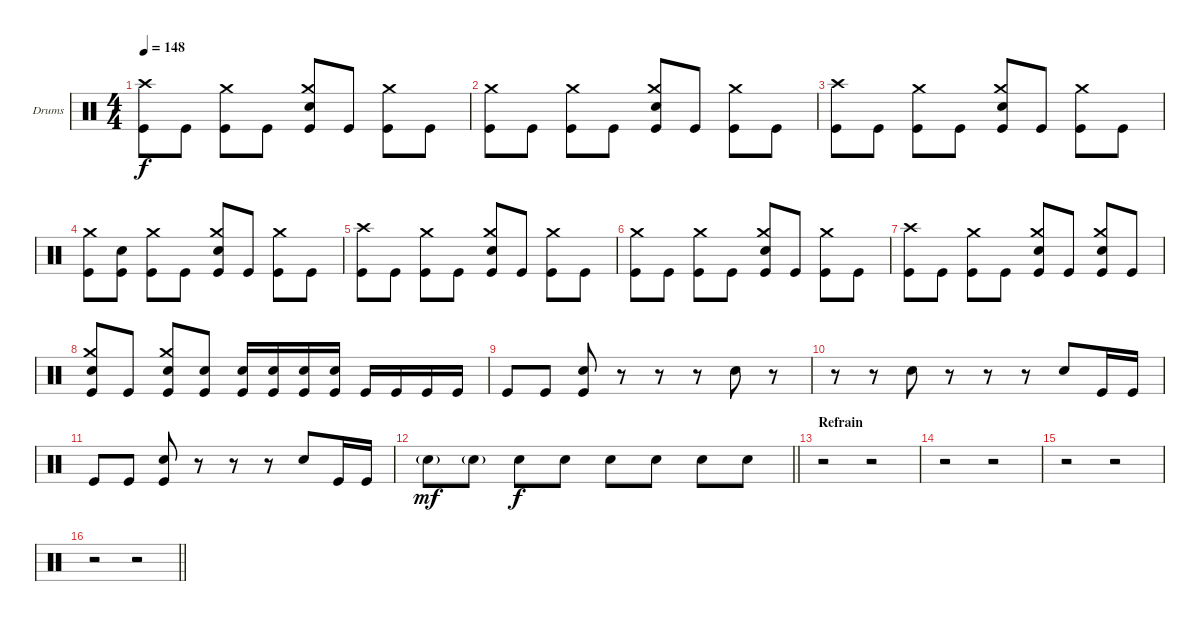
\bracketExtendMode groupsimilarinstruments
\firstSystemTrackNameOrientation horizontal
\otherSystemsTrackNameOrientation horizontal
\track ("Drumkit" "Drums") {instrument percussion}
\staff {score}
\articulation defaults
\ts (4 4)
\tempo 148
\clef neutral
\ks c
("Crash high (hit)" "Kick (hit)").8{dy f} "Kick (hit)".8 ("Crash medium (hit)" "Kick (hit)").8 "Kick (hit)".8 ("Crash medium (hit)" "Snare (hit) 2" "Kick (hit)").8 "Kick (hit)".8 ("Crash medium (hit)" "Kick (hit)").8 "Kick (hit)".8 |
("Crash medium (hit)" "Kick (hit)").8 "Kick (hit)".8 ("Crash medium (hit)" "Kick (hit)").8 "Kick (hit)".8 ("Crash medium (hit)" "Snare (hit) 2" "Kick (hit)").8 "Kick (hit)".8 ("Crash medium (hit)" "Kick (hit)").8 "Kick (hit)".8 |
("Crash high (hit)" "Kick (hit)").8 "Kick (hit)".8 ("Crash medium (hit)" "Kick (hit)").8 "Kick (hit)".8 ("Crash medium (hit)" "Snare (hit) 2" "Kick (hit)").8 "Kick (hit)".8 ("Crash medium (hit)" "Kick (hit)").8 "Kick (hit)".8 |
("Crash medium (hit)" "Kick (hit)").8 ("Snare (hit) 2" "Kick (hit)").8 ("Crash medium (hit)" "Kick (hit)").8 "Kick (hit)".8 ("Crash medium (hit)" "Snare (hit) 2" "Kick (hit)").8 "Kick (hit)".8 ("Crash medium (hit)" "Kick (hit)").8 "Kick (hit)".8 |
("Crash high (hit)" "Kick (hit)").8 "Kick (hit)".8 ("Crash medium (hit)" "Kick (hit)").8 "Kick (hit)".8 ("Crash medium (hit)" "Snare (hit) 2" "Kick (hit)").8 "Kick (hit)".8 ("Crash medium (hit)" "Kick (hit)").8 "Kick (hit)".8 |
("Crash medium (hit)" "Kick (hit)").8 "Kick (hit)".8 ("Crash medium (hit)" "Kick (hit)").8 "Kick (hit)".8 ("Crash medium (hit)" "Snare (hit) 2" "Kick (hit)").8 "Kick (hit)".8 ("Crash medium (hit)" "Kick (hit)").8 "Kick (hit)".8 |
("Crash high (hit)" "Kick (hit)").8 "Kick (hit)".8 ("Crash medium (hit)" "Kick (hit)").8 "Kick (hit)".8 ("Crash medium (hit)" "Snare (hit) 2" "Kick (hit)").8 "Kick (hit)".8 ("Crash medium (hit)" "Snare (hit) 2" "Kick (hit)").8 "Kick (hit)".8 |
("Crash medium (hit)" "Snare (hit) 2" "Kick (hit)").8 "Kick (hit)".8 ("Crash medium (hit)" "Snare (hit) 2" "Kick (hit)").8 ("Snare (hit) 2" "Kick (hit)").8 ("Snare (hit) 2" "Kick (hit)").16 ("Snare (hit) 2" "Kick (hit)").16 ("Snare (hit) 2" "Kick (hit)").16 ("Snare (hit) 2" "Kick (hit)").16 "Kick (hit)".16 "Kick (hit)".16 "Kick (hit)".16 "Kick (hit)".16 |
"Kick (hit)".8 "Kick (hit)".8 ("Snare (hit) 2" "Kick (hit)").8 r.8 r.8 r.8 "Snare (hit) 2".8 r.8 |
r.8 r.8 "Snare (hit) 2".8 r.8 r.8 r.8 "Snare (hit) 2".8 "Kick (hit)".16 "Kick (hit)".16 |
"Kick (hit)".8 "Kick (hit)".8 ("Snare (hit) 2" "Kick (hit)").8 r.8 r.8 r.8 "Snare (hit) 2".8 "Kick (hit)".16 "Kick (hit)".16 |
\barLineRight lightlight "Snare (hit) 2"{g}.8{dy mf} "Snare (hit) 2"{g}.8 "Snare (hit) 2".8{dy f} "Snare (hit) 2".8 "Snare (hit) 2".8 "Snare (hit) 2".8 "Snare (hit) 2".8 "Snare (hit) 2".8
|
\section ("" "Refrain")
r.2 r.2 |
r.2 r.2 |
r.2 r.2 |
\barLineRight lightlight
r.2 r.2
